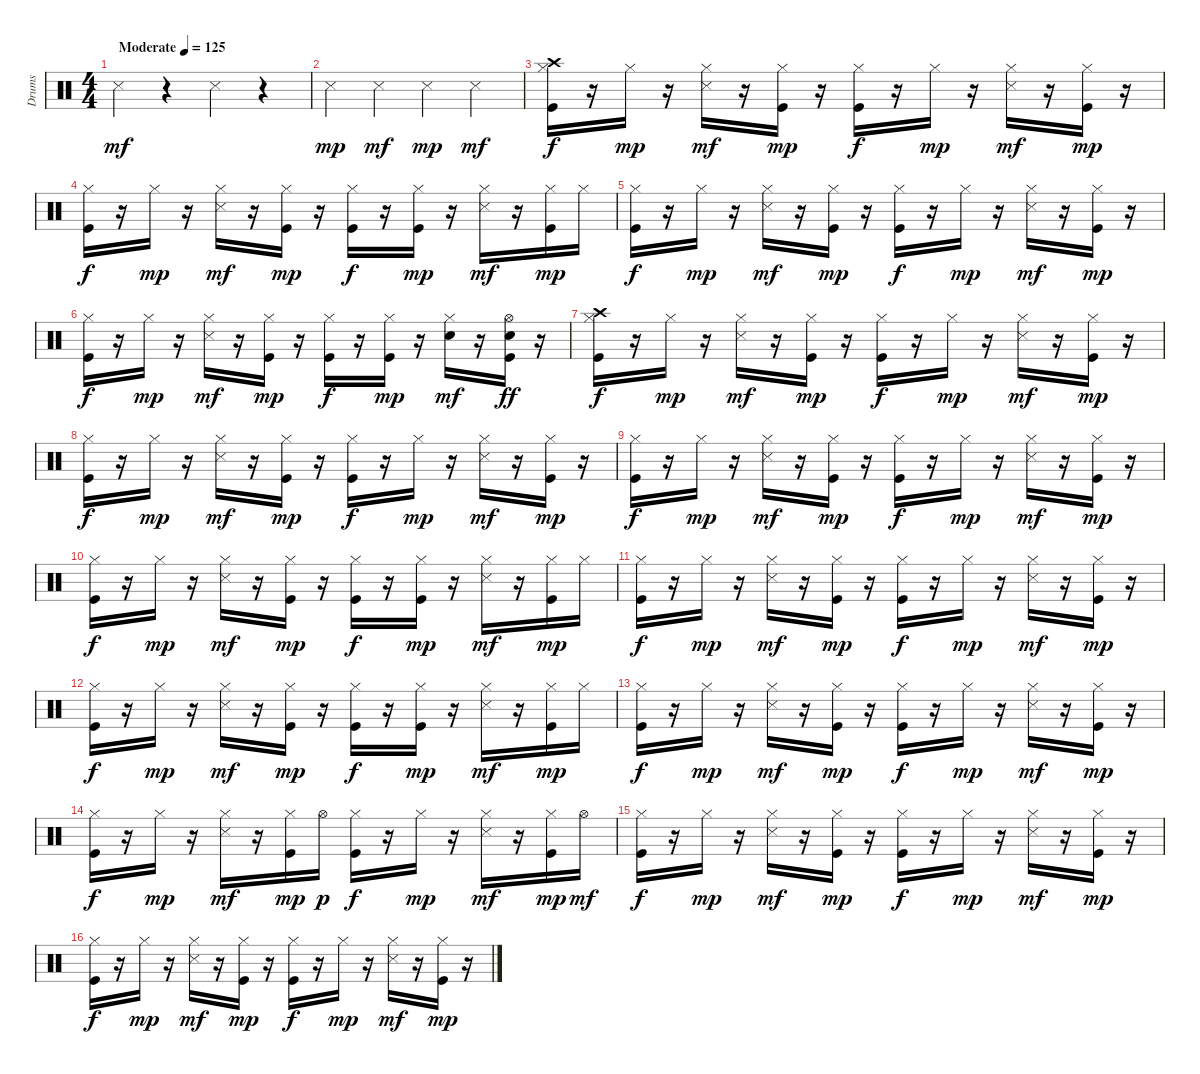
\track ("Drums   " "Drums   ") {solo instrument percussion}
\staff {score}
\articulation defaults
\ts (4 4)
\tempo (125 "Moderate")
\clef neutral
\ks c "Snare (side stick) 3".4{dy mf}
r.4 "Snare (side stick) 3".4 r.4 |
"Snare (side stick) 3".4{dy mp} "Snare (side stick) 3".4{dy mf} "Snare (side stick) 3".4{dy mp} "Snare (side stick) 3".4{dy mf} |
("Kick (hit)" "Hi-Hat (closed)" "Crash high (hit)").16{dy f} r.16 "Hi-Hat (closed)".16{dy mp} r.16 ("Hi-Hat (closed)" "Snare (side stick) 3").16{dy mf} r.16 ("Kick (hit)" "Hi-Hat (closed)").16{dy mp} r.16 ("Kick (hit)" "Hi-Hat (closed)").16{dy f} r.16 "Hi-Hat (closed)".16{dy mp} r.16 ("Hi-Hat (closed)" "Snare (side stick) 3").16{dy mf} r.16 ("Kick (hit)" "Hi-Hat (closed)").16{dy mp} r.16 |
("Kick (hit)" "Hi-Hat (closed)").16{dy f} r.16 "Hi-Hat (closed)".16{dy mp} r.16 ("Hi-Hat (closed)" "Snare (side stick) 3").16{dy mf} r.16 ("Kick (hit)" "Hi-Hat (closed)").16{dy mp} r.16 ("Kick (hit)" "Hi-Hat (closed)").16{dy f} r.16 ("Kick (hit)" "Hi-Hat (closed)").16{dy mp} r.16 ("Hi-Hat (closed)" "Snare (side stick) 3").16{dy mf} r.16 ("Kick (hit)" "Hi-Hat (closed)").16{dy mp} "Hi-Hat (closed)".16 |
("Kick (hit)" "Hi-Hat (closed)").16{dy f} r.16 "Hi-Hat (closed)".16{dy mp} r.16 ("Hi-Hat (closed)" "Snare (side stick) 3").16{dy mf} r.16 ("Kick (hit)" "Hi-Hat (closed)").16{dy mp} r.16 ("Kick (hit)" "Hi-Hat (closed)").16{dy f} r.16 "Hi-Hat (closed)".16{dy mp} r.16 ("Hi-Hat (closed)" "Snare (side stick) 3").16{dy mf} r.16 ("Kick (hit)" "Hi-Hat (closed)").16{dy mp} r.16 |
("Kick (hit)" "Hi-Hat (closed)").16{dy f} r.16 "Hi-Hat (closed)".16{dy mp} r.16 ("Hi-Hat (closed)" "Snare (side stick) 3").16{dy mf} r.16 ("Kick (hit)" "Hi-Hat (closed)").16{dy mp} r.16 ("Kick (hit)" "Hi-Hat (closed)").16{dy f} r.16 ("Kick (hit)" "Hi-Hat (closed)").16{dy mp} r.16 ("Snare (hit) 2" "Hi-Hat (closed)").16{dy mf} r.16 ("Kick (hit)" "Snare (hit) 2" "Hi-Hat (open)").16{dy ff} r.16 |
("Kick (hit)" "Hi-Hat (closed)" "Crash high (hit)").16{dy f} r.16 "Hi-Hat (closed)".16{dy mp} r.16 ("Hi-Hat (closed)" "Snare (side stick) 3").16{dy mf} r.16 ("Kick (hit)" "Hi-Hat (closed)").16{dy mp} r.16 ("Kick (hit)" "Hi-Hat (closed)").16{dy f} r.16 "Hi-Hat (closed)".16{dy mp} r.16 ("Hi-Hat (closed)" "Snare (side stick) 3").16{dy mf} r.16 ("Kick (hit)" "Hi-Hat (closed)").16{dy mp} r.16 |
("Kick (hit)" "Hi-Hat (closed)").16{dy f} r.16 "Hi-Hat (closed)".16{dy mp} r.16 ("Hi-Hat (closed)" "Snare (side stick) 3").16{dy mf} r.16 ("Kick (hit)" "Hi-Hat (closed)").16{dy mp} r.16 ("Kick (hit)" "Hi-Hat (closed)").16{dy f} r.16 "Hi-Hat (closed)".16{dy mp} r.16 ("Hi-Hat (closed)" "Snare (side stick) 3").16{dy mf} r.16 ("Kick (hit)" "Hi-Hat (closed)").16{dy mp} r.16 |
("Kick (hit)" "Hi-Hat (closed)").16{dy f} r.16 "Hi-Hat (closed)".16{dy mp} r.16 ("Hi-Hat (closed)" "Snare (side stick) 3").16{dy mf} r.16 ("Kick (hit)" "Hi-Hat (closed)").16{dy mp} r.16 ("Kick (hit)" "Hi-Hat (closed)").16{dy f} r.16 "Hi-Hat (closed)".16{dy mp} r.16 ("Hi-Hat (closed)" "Snare (side stick) 3").16{dy mf} r.16 ("Kick (hit)" "Hi-Hat (closed)").16{dy mp} r.16 |
("Kick (hit)" "Hi-Hat (closed)").16{dy f} r.16 "Hi-Hat (closed)".16{dy mp} r.16 ("Hi-Hat (closed)" "Snare (side stick) 3").16{dy mf} r.16 ("Kick (hit)" "Hi-Hat (closed)").16{dy mp} r.16 ("Kick (hit)" "Hi-Hat (closed)").16{dy f} r.16 ("Kick (hit)" "Hi-Hat (closed)").16{dy mp} r.16 ("Hi-Hat (closed)" "Snare (side stick) 3").16{dy mf} r.16 ("Kick (hit)" "Hi-Hat (closed)").16{dy mp} "Hi-Hat (closed)".16 |
("Kick (hit)" "Hi-Hat (closed)").16{dy f} r.16 "Hi-Hat (closed)".16{dy mp} r.16 ("Hi-Hat (closed)" "Snare (side stick) 3").16{dy mf} r.16 ("Kick (hit)" "Hi-Hat (closed)").16{dy mp} r.16 ("Kick (hit)" "Hi-Hat (closed)").16{dy f} r.16 "Hi-Hat (closed)".16{dy mp} r.16 ("Hi-Hat (closed)" "Snare (side stick) 3").16{dy mf} r.16 ("Kick (hit)" "Hi-Hat (closed)").16{dy mp} r.16 |
("Kick (hit)" "Hi-Hat (closed)").16{dy f} r.16 "Hi-Hat (closed)".16{dy mp} r.16 ("Hi-Hat (closed)" "Snare (side stick) 3").16{dy mf} r.16 ("Kick (hit)" "Hi-Hat (closed)").16{dy mp} r.16 ("Kick (hit)" "Hi-Hat (closed)").16{dy f} r.16 ("Kick (hit)" "Hi-Hat (closed)").16{dy mp} r.16 ("Hi-Hat (closed)" "Snare (side stick) 3").16{dy mf} r.16 ("Kick (hit)" "Hi-Hat (closed)").16{dy mp} "Hi-Hat (closed)".16 |
("Kick (hit)" "Hi-Hat (closed)").16{dy f} r.16 "Hi-Hat (closed)".16{dy mp} r.16 ("Hi-Hat (closed)" "Snare (side stick) 3").16{dy mf} r.16 ("Kick (hit)" "Hi-Hat (closed)").16{dy mp} r.16 ("Kick (hit)" "Hi-Hat (closed)").16{dy f} r.16 "Hi-Hat (closed)".16{dy mp} r.16 ("Hi-Hat (closed)" "Snare (side stick) 3").16{dy mf} r.16 ("Kick (hit)" "Hi-Hat (closed)").16{dy mp} r.16 |
("Kick (hit)" "Hi-Hat (closed)").16{dy f} r.16 "Hi-Hat (closed)".16{dy mp} r.16 ("Hi-Hat (closed)" "Snare (side stick) 3").16{dy mf} r.16 ("Kick (hit)" "Hi-Hat (closed)").16{dy mp} "Hi-Hat (open)".16{dy p} ("Kick (hit)" "Hi-Hat (closed)").16{dy f} r.16 "Hi-Hat (closed)".16{dy mp} r.16 ("Hi-Hat (closed)" "Snare (side stick) 3").16{dy mf} r.16 ("Kick (hit)" "Hi-Hat (closed)").16{dy mp} "Hi-Hat (open)".16{dy mf} |
("Kick (hit)" "Hi-Hat (closed)").16{dy f} r.16 "Hi-Hat (closed)".16{dy mp} r.16 ("Hi-Hat (closed)" "Snare (side stick) 3").16{dy mf} r.16 ("Kick (hit)" "Hi-Hat (closed)").16{dy mp} r.16 ("Kick (hit)" "Hi-Hat (closed)").16{dy f} r.16 "Hi-Hat (closed)".16{dy mp} r.16 ("Hi-Hat (closed)" "Snare (side stick) 3").16{dy mf} r.16 ("Kick (hit)" "Hi-Hat (closed)").16{dy mp} r.16 |
("Kick (hit)" "Hi-Hat (closed)").16{dy f} r.16 "Hi-Hat (closed)".16{dy mp} r.16 ("Hi-Hat (closed)" "Snare (side stick) 3").16{dy mf} r.16 ("Kick (hit)" "Hi-Hat (closed)").16{dy mp} r.16 ("Kick (hit)" "Hi-Hat (closed)").16{dy f} r.16 "Hi-Hat (closed)".16{dy mp} r.16 ("Hi-Hat (closed)" "Snare (side stick) 3").16{dy mf} r.16 ("Kick (hit)" "Hi-Hat (closed)").16{dy mp} r.16
